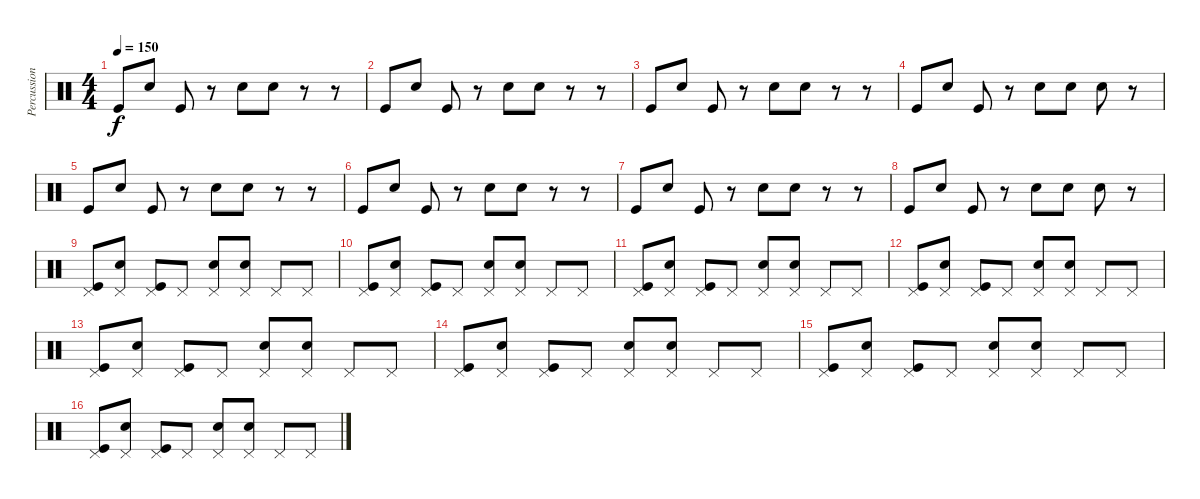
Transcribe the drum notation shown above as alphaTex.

\track ("Percussion" "Percussion") {instrument percussion}
\staff {score}
\articulation defaults
\ts (4 4)
\tempo 150
\clef neutral
\ks c "Kick (hit)".8{dy f} "Electric Snare (hit)".8 "Kick (hit)".8
r.8 "Electric Snare (hit)".8 "Electric Snare (hit)".8 r.8 r.8 |
"Kick (hit)".8 "Electric Snare (hit)".8 "Kick (hit)".8 r.8 "Electric Snare (hit)".8 "Electric Snare (hit)".8 r.8 r.8 |
"Kick (hit)".8 "Electric Snare (hit)".8 "Kick (hit)".8 r.8 "Electric Snare (hit)".8 "Electric Snare (hit)".8 r.8 r.8 |
"Kick (hit)".8 "Electric Snare (hit)".8 "Kick (hit)".8 r.8 "Electric Snare (hit)".8 "Electric Snare (hit)".8 "Electric Snare (hit)".8 r.8 |
"Kick (hit)".8 "Electric Snare (hit)".8 "Kick (hit)".8 r.8 "Electric Snare (hit)".8 "Electric Snare (hit)".8 r.8 r.8 |
"Kick (hit)".8 "Electric Snare (hit)".8 "Kick (hit)".8 r.8 "Electric Snare (hit)".8 "Electric Snare (hit)".8 r.8 r.8 |
"Kick (hit)".8 "Electric Snare (hit)".8 "Kick (hit)".8 r.8 "Electric Snare (hit)".8 "Electric Snare (hit)".8 r.8 r.8 |
"Kick (hit)".8 "Electric Snare (hit)".8 "Kick (hit)".8 r.8 "Electric Snare (hit)".8 "Electric Snare (hit)".8 "Electric Snare (hit)".8 r.8 |
("Kick (hit)" "Pedal Hi-Hat (hit)").8 ("Electric Snare (hit)" "Pedal Hi-Hat (hit)").8 ("Kick (hit)" "Pedal Hi-Hat (hit)").8 "Pedal Hi-Hat (hit)".8 ("Electric Snare (hit)" "Pedal Hi-Hat (hit)").8 ("Electric Snare (hit)" "Pedal Hi-Hat (hit)").8 "Pedal Hi-Hat (hit)".8 "Pedal Hi-Hat (hit)".8 |
("Kick (hit)" "Pedal Hi-Hat (hit)").8 ("Electric Snare (hit)" "Pedal Hi-Hat (hit)").8 ("Kick (hit)" "Pedal Hi-Hat (hit)").8 "Pedal Hi-Hat (hit)".8 ("Electric Snare (hit)" "Pedal Hi-Hat (hit)").8 ("Electric Snare (hit)" "Pedal Hi-Hat (hit)").8 "Pedal Hi-Hat (hit)".8 "Pedal Hi-Hat (hit)".8 |
("Kick (hit)" "Pedal Hi-Hat (hit)").8 ("Electric Snare (hit)" "Pedal Hi-Hat (hit)").8 ("Kick (hit)" "Pedal Hi-Hat (hit)").8 "Pedal Hi-Hat (hit)".8 ("Electric Snare (hit)" "Pedal Hi-Hat (hit)").8 ("Electric Snare (hit)" "Pedal Hi-Hat (hit)").8 "Pedal Hi-Hat (hit)".8 "Pedal Hi-Hat (hit)".8 |
("Kick (hit)" "Pedal Hi-Hat (hit)").8 ("Electric Snare (hit)" "Pedal Hi-Hat (hit)").8 ("Kick (hit)" "Pedal Hi-Hat (hit)").8 "Pedal Hi-Hat (hit)".8 ("Electric Snare (hit)" "Pedal Hi-Hat (hit)").8 ("Electric Snare (hit)" "Pedal Hi-Hat (hit)").8 "Pedal Hi-Hat (hit)".8 "Pedal Hi-Hat (hit)".8 |
("Kick (hit)" "Pedal Hi-Hat (hit)").8 ("Electric Snare (hit)" "Pedal Hi-Hat (hit)").8 ("Kick (hit)" "Pedal Hi-Hat (hit)").8 "Pedal Hi-Hat (hit)".8 ("Electric Snare (hit)" "Pedal Hi-Hat (hit)").8 ("Electric Snare (hit)" "Pedal Hi-Hat (hit)").8 "Pedal Hi-Hat (hit)".8 "Pedal Hi-Hat (hit)".8 |
("Kick (hit)" "Pedal Hi-Hat (hit)").8 ("Electric Snare (hit)" "Pedal Hi-Hat (hit)").8 ("Kick (hit)" "Pedal Hi-Hat (hit)").8 "Pedal Hi-Hat (hit)".8 ("Electric Snare (hit)" "Pedal Hi-Hat (hit)").8 ("Electric Snare (hit)" "Pedal Hi-Hat (hit)").8 "Pedal Hi-Hat (hit)".8 "Pedal Hi-Hat (hit)".8 |
("Kick (hit)" "Pedal Hi-Hat (hit)").8 ("Electric Snare (hit)" "Pedal Hi-Hat (hit)").8 ("Kick (hit)" "Pedal Hi-Hat (hit)").8 "Pedal Hi-Hat (hit)".8 ("Electric Snare (hit)" "Pedal Hi-Hat (hit)").8 ("Electric Snare (hit)" "Pedal Hi-Hat (hit)").8 "Pedal Hi-Hat (hit)".8 "Pedal Hi-Hat (hit)".8 |
("Kick (hit)" "Pedal Hi-Hat (hit)").8 ("Electric Snare (hit)" "Pedal Hi-Hat (hit)").8 ("Kick (hit)" "Pedal Hi-Hat (hit)").8 "Pedal Hi-Hat (hit)".8 ("Electric Snare (hit)" "Pedal Hi-Hat (hit)").8 ("Electric Snare (hit)" "Pedal Hi-Hat (hit)").8 "Pedal Hi-Hat (hit)".8 "Pedal Hi-Hat (hit)".8
